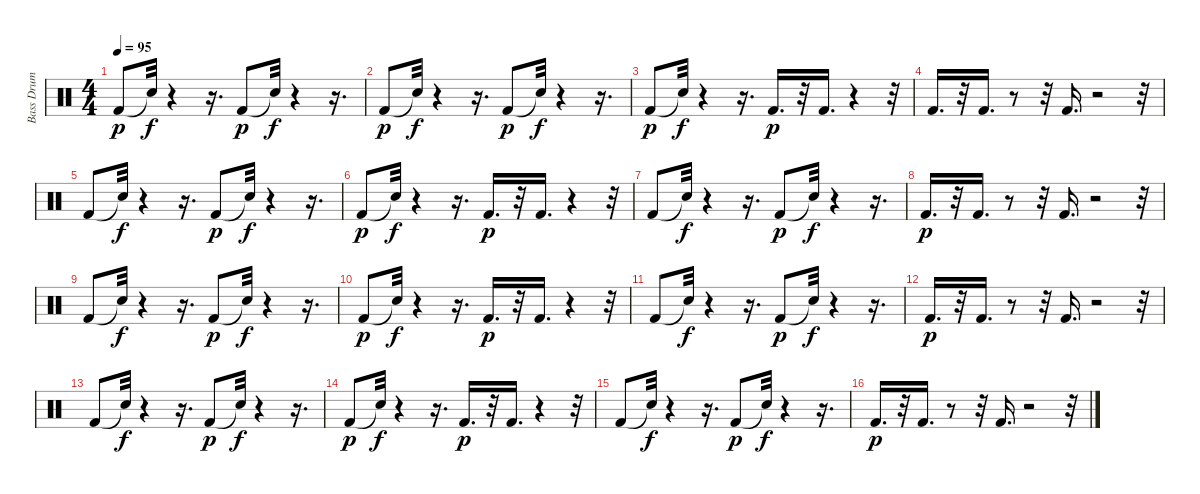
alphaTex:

\track ("Bass Drum" "Bass Drum") {instrument percussion}
\staff {score}
\articulation defaults
\ts (4 4)
\tempo 95
\clef neutral
\ks c "Kick (hit) 2".8{dy p} "Snare (hit)"{t}.32{dy f}
r.4 r.16{d} "Kick (hit) 2".8{dy p} "Snare (hit)"{t}.32{dy f} r.4 r.16{d} |
"Kick (hit) 2".8{dy p} "Snare (hit)"{t}.32{dy f} r.4 r.16{d} "Kick (hit) 2".8{dy p} "Snare (hit)"{t}.32{dy f} r.4 r.16{d} |
"Kick (hit) 2".8{dy p} "Snare (hit)"{t}.32{dy f} r.4 r.16{d} "Kick (hit) 2".16{d dy p} r.32 "Kick (hit) 2".16{d} r.4 r.32 |
"Kick (hit) 2".16{d} r.32 "Kick (hit) 2".16{d} r.8 r.32 "Kick (hit) 2".16{d} r.2 r.32 |
"Kick (hit) 2".8 "Snare (hit)"{t}.32{dy f} r.4 r.16{d} "Kick (hit) 2".8{dy p} "Snare (hit)"{t}.32{dy f} r.4 r.16{d} |
"Kick (hit) 2".8{dy p} "Snare (hit)"{t}.32{dy f} r.4 r.16{d} "Kick (hit) 2".16{d dy p} r.32 "Kick (hit) 2".16{d} r.4 r.32 |
"Kick (hit) 2".8 "Snare (hit)"{t}.32{dy f} r.4 r.16{d} "Kick (hit) 2".8{dy p} "Snare (hit)"{t}.32{dy f} r.4 r.16{d} |
"Kick (hit) 2".16{d dy p} r.32 "Kick (hit) 2".16{d} r.8 r.32 "Kick (hit) 2".16{d} r.2 r.32 |
"Kick (hit) 2".8 "Snare (hit)"{t}.32{dy f} r.4 r.16{d} "Kick (hit) 2".8{dy p} "Snare (hit)"{t}.32{dy f} r.4 r.16{d} |
"Kick (hit) 2".8{dy p} "Snare (hit)"{t}.32{dy f} r.4 r.16{d} "Kick (hit) 2".16{d dy p} r.32 "Kick (hit) 2".16{d} r.4 r.32 |
"Kick (hit) 2".8 "Snare (hit)"{t}.32{dy f} r.4 r.16{d} "Kick (hit) 2".8{dy p} "Snare (hit)"{t}.32{dy f} r.4 r.16{d} |
"Kick (hit) 2".16{d dy p} r.32 "Kick (hit) 2".16{d} r.8 r.32 "Kick (hit) 2".16{d} r.2 r.32 |
"Kick (hit) 2".8 "Snare (hit)"{t}.32{dy f} r.4 r.16{d} "Kick (hit) 2".8{dy p} "Snare (hit)"{t}.32{dy f} r.4 r.16{d} |
"Kick (hit) 2".8{dy p} "Snare (hit)"{t}.32{dy f} r.4 r.16{d} "Kick (hit) 2".16{d dy p} r.32 "Kick (hit) 2".16{d} r.4 r.32 |
"Kick (hit) 2".8 "Snare (hit)"{t}.32{dy f} r.4 r.16{d} "Kick (hit) 2".8{dy p} "Snare (hit)"{t}.32{dy f} r.4 r.16{d} |
"Kick (hit) 2".16{d dy p} r.32 "Kick (hit) 2".16{d} r.8 r.32 "Kick (hit) 2".16{d} r.2 r.32
